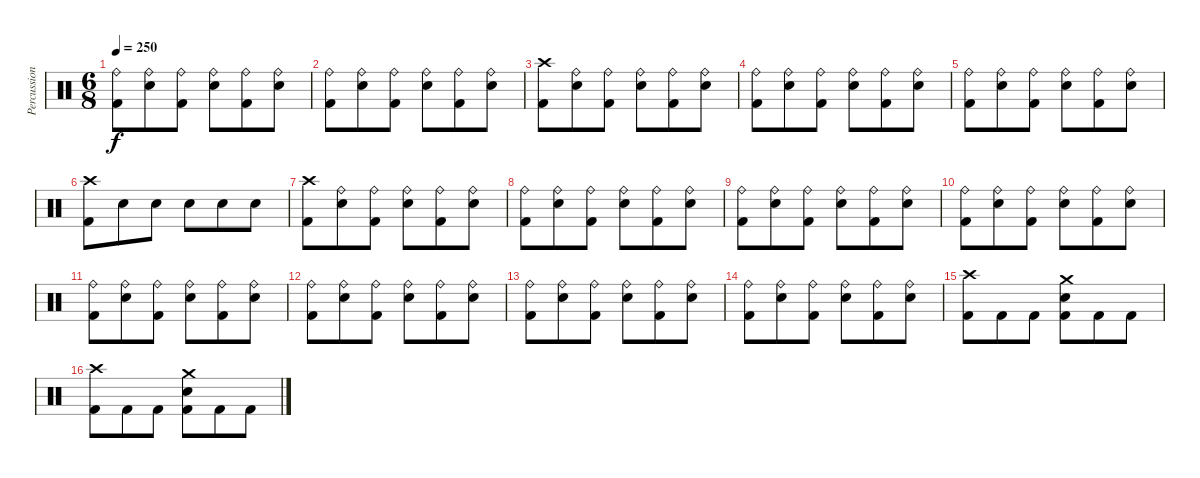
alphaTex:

\track ("Percussion" "Percussion") {instrument percussion}
\staff {score}
\articulation defaults
\ts (6 8)
\tempo 250
\clef neutral
\ks c
("Ride (bell)" "Kick (hit) 2").8{dy f} ("Ride (bell)" "Electric Snare (hit)").8 ("Ride (bell)" "Kick (hit) 2").8 ("Ride (bell)" "Electric Snare (hit)").8 ("Ride (bell)" "Kick (hit) 2").8 ("Ride (bell)" "Electric Snare (hit)").8 |
("Ride (bell)" "Kick (hit) 2").8 ("Ride (bell)" "Electric Snare (hit)").8 ("Ride (bell)" "Kick (hit) 2").8 ("Ride (bell)" "Electric Snare (hit)").8 ("Ride (bell)" "Kick (hit) 2").8 ("Ride (bell)" "Electric Snare (hit)").8 |
("Crash high (hit)" "Kick (hit) 2").8 ("Ride (bell)" "Electric Snare (hit)").8 ("Ride (bell)" "Kick (hit) 2").8 ("Ride (bell)" "Electric Snare (hit)").8 ("Ride (bell)" "Kick (hit) 2").8 ("Ride (bell)" "Electric Snare (hit)").8 |
("Ride (bell)" "Kick (hit) 2").8 ("Ride (bell)" "Electric Snare (hit)").8 ("Ride (bell)" "Kick (hit) 2").8 ("Ride (bell)" "Electric Snare (hit)").8 ("Ride (bell)" "Kick (hit) 2").8 ("Ride (bell)" "Electric Snare (hit)").8 |
("Ride (bell)" "Kick (hit) 2").8 ("Ride (bell)" "Electric Snare (hit)").8 ("Ride (bell)" "Kick (hit) 2").8 ("Ride (bell)" "Electric Snare (hit)").8 ("Ride (bell)" "Kick (hit) 2").8 ("Ride (bell)" "Electric Snare (hit)").8 |
("Crash high (hit)" "Kick (hit) 2").8 "Electric Snare (hit)".8 "Electric Snare (hit)".8 "Electric Snare (hit)".8 "Electric Snare (hit)".8 "Electric Snare (hit)".8 |
("Crash high (hit)" "Kick (hit) 2").8 ("Ride (bell)" "Electric Snare (hit)").8 ("Ride (bell)" "Kick (hit) 2").8 ("Ride (bell)" "Electric Snare (hit)").8 ("Ride (bell)" "Kick (hit) 2").8 ("Ride (bell)" "Electric Snare (hit)").8 |
("Ride (bell)" "Kick (hit) 2").8 ("Ride (bell)" "Electric Snare (hit)").8 ("Ride (bell)" "Kick (hit) 2").8 ("Ride (bell)" "Electric Snare (hit)").8 ("Ride (bell)" "Kick (hit) 2").8 ("Ride (bell)" "Electric Snare (hit)").8 |
("Ride (bell)" "Kick (hit) 2").8 ("Ride (bell)" "Electric Snare (hit)").8 ("Ride (bell)" "Kick (hit) 2").8 ("Ride (bell)" "Electric Snare (hit)").8 ("Ride (bell)" "Kick (hit) 2").8 ("Ride (bell)" "Electric Snare (hit)").8 |
("Ride (bell)" "Kick (hit) 2").8 ("Ride (bell)" "Electric Snare (hit)").8 ("Ride (bell)" "Kick (hit) 2").8 ("Ride (bell)" "Electric Snare (hit)").8 ("Ride (bell)" "Kick (hit) 2").8 ("Ride (bell)" "Electric Snare (hit)").8 |
("Ride (bell)" "Kick (hit) 2").8 ("Ride (bell)" "Electric Snare (hit)").8 ("Ride (bell)" "Kick (hit) 2").8 ("Ride (bell)" "Electric Snare (hit)").8 ("Ride (bell)" "Kick (hit) 2").8 ("Ride (bell)" "Electric Snare (hit)").8 |
("Ride (bell)" "Kick (hit) 2").8 ("Ride (bell)" "Electric Snare (hit)").8 ("Ride (bell)" "Kick (hit) 2").8 ("Ride (bell)" "Electric Snare (hit)").8 ("Ride (bell)" "Kick (hit) 2").8 ("Ride (bell)" "Electric Snare (hit)").8 |
("Ride (bell)" "Kick (hit) 2").8 ("Ride (bell)" "Electric Snare (hit)").8 ("Ride (bell)" "Kick (hit) 2").8 ("Ride (bell)" "Electric Snare (hit)").8 ("Ride (bell)" "Kick (hit) 2").8 ("Ride (bell)" "Electric Snare (hit)").8 |
("Ride (bell)" "Kick (hit) 2").8 ("Ride (bell)" "Electric Snare (hit)").8 ("Ride (bell)" "Kick (hit) 2").8 ("Ride (bell)" "Electric Snare (hit)").8 ("Ride (bell)" "Kick (hit) 2").8 ("Ride (bell)" "Electric Snare (hit)").8 |
("Crash high (hit)" "Kick (hit) 2").8 "Kick (hit) 2".8 "Kick (hit) 2".8 ("Crash medium (hit)" "Electric Snare (hit)" "Kick (hit) 2").8 "Kick (hit) 2".8 "Kick (hit) 2".8 |
("Crash high (hit)" "Kick (hit) 2").8 "Kick (hit) 2".8 "Kick (hit) 2".8 ("Crash medium (hit)" "Electric Snare (hit)" "Kick (hit) 2").8 "Kick (hit) 2".8 "Kick (hit) 2".8
